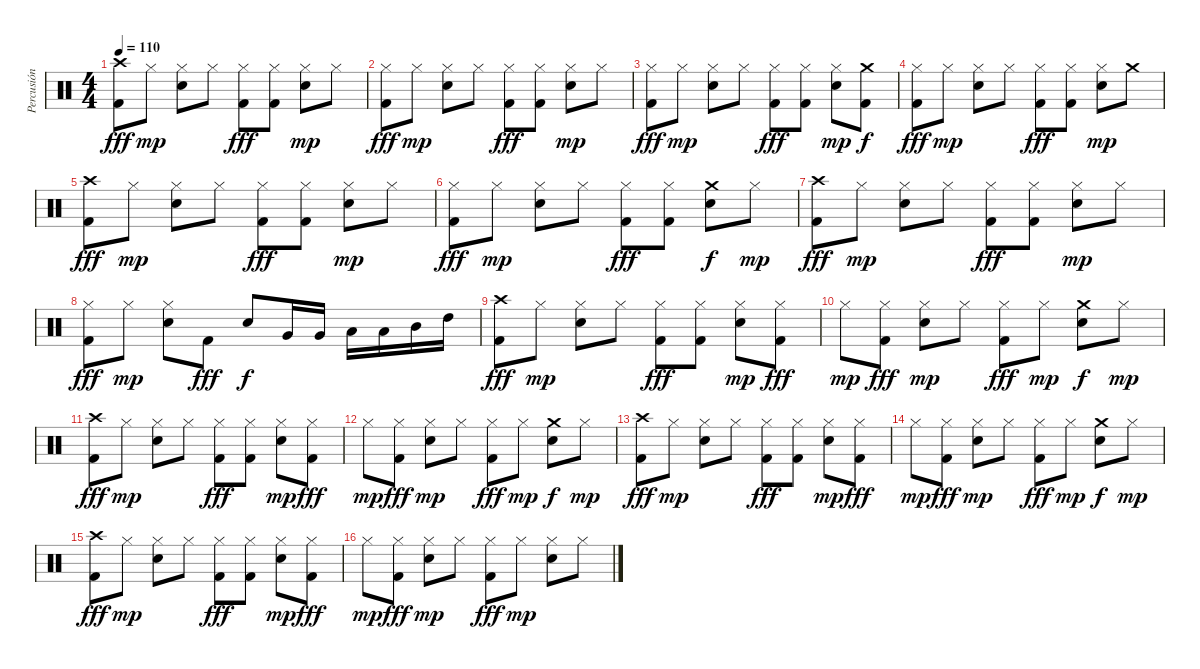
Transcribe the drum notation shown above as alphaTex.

\track ("Percusión" "Percusión") {instrument percussion}
\staff {score}
\articulation defaults
\ts (4 4)
\tempo 110
\clef neutral
\ks c
("Crash high (hit)" "Kick (hit) 2").8{dy fff} "Hi-Hat (closed)".8{dy mp} ("Hi-Hat (closed)" "Snare (hit) 2").8 "Hi-Hat (closed)".8 ("Hi-Hat (closed)" "Kick (hit) 2").8{dy fff} ("Hi-Hat (closed)" "Kick (hit) 2").8 ("Hi-Hat (closed)" "Snare (hit) 2").8{dy mp} "Hi-Hat (closed)".8 |
("Hi-Hat (closed)" "Kick (hit) 2").8{dy fff} "Hi-Hat (closed)".8{dy mp} ("Hi-Hat (closed)" "Snare (hit) 2").8 "Hi-Hat (closed)".8 ("Hi-Hat (closed)" "Kick (hit) 2").8{dy fff} ("Hi-Hat (closed)" "Kick (hit) 2").8 ("Hi-Hat (closed)" "Snare (hit) 2").8{dy mp} "Hi-Hat (closed)".8 |
("Hi-Hat (closed)" "Kick (hit) 2").8{dy fff} "Hi-Hat (closed)".8{dy mp} ("Hi-Hat (closed)" "Snare (hit) 2").8 "Hi-Hat (closed)".8 ("Hi-Hat (closed)" "Kick (hit) 2").8{dy fff} ("Hi-Hat (closed)" "Kick (hit) 2").8 ("Hi-Hat (closed)" "Snare (hit) 2").8{dy mp} ("Crash medium (hit)" "Kick (hit) 2").8{dy f} |
("Hi-Hat (closed)" "Kick (hit) 2").8{dy fff} "Hi-Hat (closed)".8{dy mp} ("Hi-Hat (closed)" "Snare (hit) 2").8 "Hi-Hat (closed)".8 ("Hi-Hat (closed)" "Kick (hit) 2").8{dy fff} ("Hi-Hat (closed)" "Kick (hit) 2").8 ("Hi-Hat (closed)" "Snare (hit) 2").8{dy mp} "Crash medium (hit)".8 |
("Crash high (hit)" "Kick (hit) 2").8{dy fff} "Hi-Hat (closed)".8{dy mp} ("Hi-Hat (closed)" "Snare (hit) 2").8 "Hi-Hat (closed)".8 ("Hi-Hat (closed)" "Kick (hit) 2").8{dy fff} ("Hi-Hat (closed)" "Kick (hit) 2").8 ("Hi-Hat (closed)" "Snare (hit) 2").8{dy mp} "Hi-Hat (closed)".8 |
("Hi-Hat (closed)" "Kick (hit) 2").8{dy fff} "Hi-Hat (closed)".8{dy mp} ("Hi-Hat (closed)" "Snare (hit) 2").8 "Hi-Hat (closed)".8 ("Hi-Hat (closed)" "Kick (hit) 2").8{dy fff} ("Hi-Hat (closed)" "Kick (hit) 2").8 ("Crash medium (hit)" "Snare (hit) 2").8{dy f} "Hi-Hat (closed)".8{dy mp} |
("Crash high (hit)" "Kick (hit) 2").8{dy fff} "Hi-Hat (closed)".8{dy mp} ("Hi-Hat (closed)" "Snare (hit) 2").8 "Hi-Hat (closed)".8 ("Hi-Hat (closed)" "Kick (hit) 2").8{dy fff} ("Hi-Hat (closed)" "Kick (hit) 2").8 ("Hi-Hat (closed)" "Snare (hit) 2").8{dy mp} "Hi-Hat (closed)".8 |
("Hi-Hat (closed)" "Kick (hit) 2").8{dy fff} "Hi-Hat (closed)".8{dy mp} ("Hi-Hat (closed)" "Snare (hit) 2").8 "Kick (hit) 2".8{dy fff} "Snare (hit) 2".8{dy f} "Very Low Tom (hit)".16 "Very Low Tom (hit)".16 "Low Tom (hit)".16 "Low Tom (hit)".16 "Mid Tom (hit)".16 "High Tom (hit)".16 |
("Crash high (hit)" "Kick (hit) 2").8{dy fff} "Hi-Hat (closed)".8{dy mp} ("Hi-Hat (closed)" "Snare (hit) 2").8 "Hi-Hat (closed)".8 ("Hi-Hat (closed)" "Kick (hit) 2").8{dy fff} ("Hi-Hat (closed)" "Kick (hit) 2").8 ("Hi-Hat (closed)" "Snare (hit) 2").8{dy mp} ("Hi-Hat (closed)" "Kick (hit) 2").8{dy fff} |
"Hi-Hat (closed)".8{dy mp} ("Hi-Hat (closed)" "Kick (hit) 2").8{dy fff} ("Hi-Hat (closed)" "Snare (hit) 2").8{dy mp} "Hi-Hat (closed)".8 ("Hi-Hat (closed)" "Kick (hit) 2").8{dy fff} "Hi-Hat (closed)".8{dy mp} ("Crash medium (hit)" "Snare (hit) 2").8{dy f} "Hi-Hat (closed)".8{dy mp} |
("Crash high (hit)" "Kick (hit) 2").8{dy fff} "Hi-Hat (closed)".8{dy mp} ("Hi-Hat (closed)" "Snare (hit) 2").8 "Hi-Hat (closed)".8 ("Hi-Hat (closed)" "Kick (hit) 2").8{dy fff} ("Hi-Hat (closed)" "Kick (hit) 2").8 ("Hi-Hat (closed)" "Snare (hit) 2").8{dy mp} ("Hi-Hat (closed)" "Kick (hit) 2").8{dy fff} |
"Hi-Hat (closed)".8{dy mp} ("Hi-Hat (closed)" "Kick (hit) 2").8{dy fff} ("Hi-Hat (closed)" "Snare (hit) 2").8{dy mp} "Hi-Hat (closed)".8 ("Hi-Hat (closed)" "Kick (hit) 2").8{dy fff} "Hi-Hat (closed)".8{dy mp} ("Crash medium (hit)" "Snare (hit) 2").8{dy f} "Hi-Hat (closed)".8{dy mp} |
("Crash high (hit)" "Kick (hit) 2").8{dy fff} "Hi-Hat (closed)".8{dy mp} ("Hi-Hat (closed)" "Snare (hit) 2").8 "Hi-Hat (closed)".8 ("Hi-Hat (closed)" "Kick (hit) 2").8{dy fff} ("Hi-Hat (closed)" "Kick (hit) 2").8 ("Hi-Hat (closed)" "Snare (hit) 2").8{dy mp} ("Hi-Hat (closed)" "Kick (hit) 2").8{dy fff} |
"Hi-Hat (closed)".8{dy mp} ("Hi-Hat (closed)" "Kick (hit) 2").8{dy fff} ("Hi-Hat (closed)" "Snare (hit) 2").8{dy mp} "Hi-Hat (closed)".8 ("Hi-Hat (closed)" "Kick (hit) 2").8{dy fff} "Hi-Hat (closed)".8{dy mp} ("Crash medium (hit)" "Snare (hit) 2").8{dy f} "Hi-Hat (closed)".8{dy mp} |
("Crash high (hit)" "Kick (hit) 2").8{dy fff} "Hi-Hat (closed)".8{dy mp} ("Hi-Hat (closed)" "Snare (hit) 2").8 "Hi-Hat (closed)".8 ("Hi-Hat (closed)" "Kick (hit) 2").8{dy fff} ("Hi-Hat (closed)" "Kick (hit) 2").8 ("Hi-Hat (closed)" "Snare (hit) 2").8{dy mp} ("Hi-Hat (closed)" "Kick (hit) 2").8{dy fff} |
"Hi-Hat (closed)".8{dy mp} ("Hi-Hat (closed)" "Kick (hit) 2").8{dy fff} ("Hi-Hat (closed)" "Snare (hit) 2").8{dy mp} "Hi-Hat (closed)".8 ("Hi-Hat (closed)" "Kick (hit) 2").8{dy fff} "Hi-Hat (closed)".8{dy mp} ("Hi-Hat (closed)" "Snare (hit) 2").8 "Hi-Hat (closed)".8
